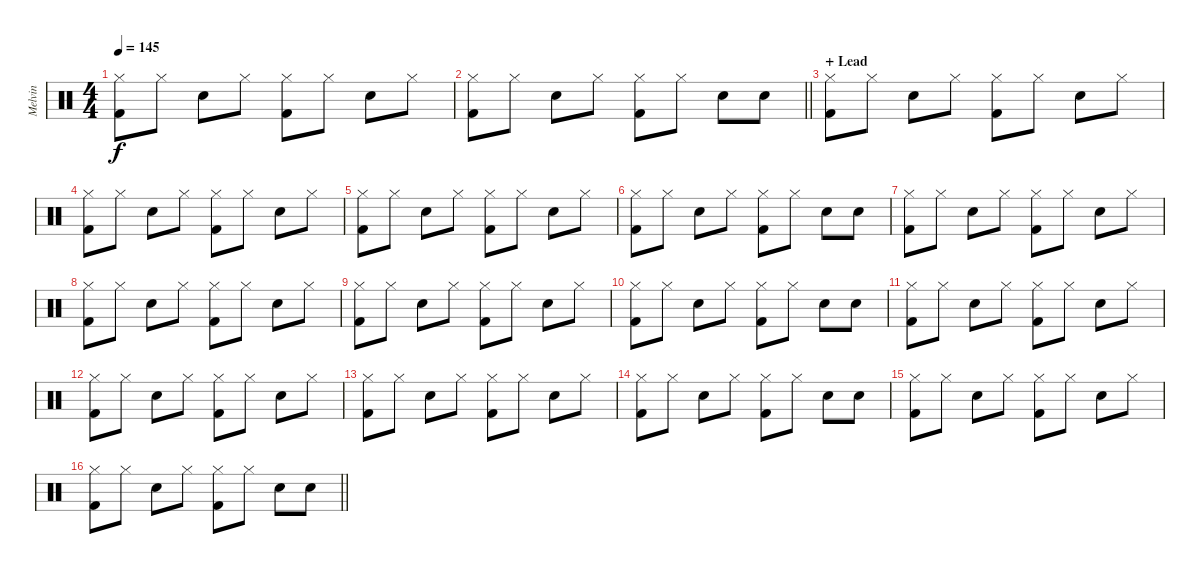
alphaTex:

\track ("Melvin" "Melvin") {instrument percussion}
\staff {score}
\articulation defaults
\ts (4 4)
\tempo 145
\clef neutral
\ks c
("Hi-Hat (closed)" "Kick (hit) 2").8{dy f} "Hi-Hat (closed)".8 "Snare (hit) 2".8 "Hi-Hat (closed)".8 ("Hi-Hat (closed)" "Kick (hit) 2").8 "Hi-Hat (closed)".8 "Snare (hit) 2".8 "Hi-Hat (closed)".8 |
\barLineRight lightlight
("Hi-Hat (closed)" "Kick (hit) 2").8 "Hi-Hat (closed)".8 "Snare (hit) 2".8 "Hi-Hat (closed)".8 ("Hi-Hat (closed)" "Kick (hit) 2").8 "Hi-Hat (closed)".8 "Snare (hit) 2".8 "Snare (hit) 2".8 |
\section ("" "+ Lead")
("Hi-Hat (closed)" "Kick (hit) 2").8 "Hi-Hat (closed)".8 "Snare (hit) 2".8 "Hi-Hat (closed)".8 ("Hi-Hat (closed)" "Kick (hit) 2").8 "Hi-Hat (closed)".8 "Snare (hit) 2".8 "Hi-Hat (closed)".8 |
("Hi-Hat (closed)" "Kick (hit) 2").8 "Hi-Hat (closed)".8 "Snare (hit) 2".8 "Hi-Hat (closed)".8 ("Hi-Hat (closed)" "Kick (hit) 2").8 "Hi-Hat (closed)".8 "Snare (hit) 2".8 "Hi-Hat (closed)".8 |
("Hi-Hat (closed)" "Kick (hit) 2").8 "Hi-Hat (closed)".8 "Snare (hit) 2".8 "Hi-Hat (closed)".8 ("Hi-Hat (closed)" "Kick (hit) 2").8 "Hi-Hat (closed)".8 "Snare (hit) 2".8 "Hi-Hat (closed)".8 |
("Hi-Hat (closed)" "Kick (hit) 2").8 "Hi-Hat (closed)".8 "Snare (hit) 2".8 "Hi-Hat (closed)".8 ("Hi-Hat (closed)" "Kick (hit) 2").8 "Hi-Hat (closed)".8 "Snare (hit) 2".8 "Snare (hit) 2".8 |
("Hi-Hat (closed)" "Kick (hit) 2").8 "Hi-Hat (closed)".8 "Snare (hit) 2".8 "Hi-Hat (closed)".8 ("Hi-Hat (closed)" "Kick (hit) 2").8 "Hi-Hat (closed)".8 "Snare (hit) 2".8 "Hi-Hat (closed)".8 |
("Hi-Hat (closed)" "Kick (hit) 2").8 "Hi-Hat (closed)".8 "Snare (hit) 2".8 "Hi-Hat (closed)".8 ("Hi-Hat (closed)" "Kick (hit) 2").8 "Hi-Hat (closed)".8 "Snare (hit) 2".8 "Hi-Hat (closed)".8 |
("Hi-Hat (closed)" "Kick (hit) 2").8 "Hi-Hat (closed)".8 "Snare (hit) 2".8 "Hi-Hat (closed)".8 ("Hi-Hat (closed)" "Kick (hit) 2").8 "Hi-Hat (closed)".8 "Snare (hit) 2".8 "Hi-Hat (closed)".8 |
("Hi-Hat (closed)" "Kick (hit) 2").8 "Hi-Hat (closed)".8 "Snare (hit) 2".8 "Hi-Hat (closed)".8 ("Hi-Hat (closed)" "Kick (hit) 2").8 "Hi-Hat (closed)".8 "Snare (hit) 2".8 "Snare (hit) 2".8 |
("Hi-Hat (closed)" "Kick (hit) 2").8 "Hi-Hat (closed)".8 "Snare (hit) 2".8 "Hi-Hat (closed)".8 ("Hi-Hat (closed)" "Kick (hit) 2").8 "Hi-Hat (closed)".8 "Snare (hit) 2".8 "Hi-Hat (closed)".8 |
("Hi-Hat (closed)" "Kick (hit) 2").8 "Hi-Hat (closed)".8 "Snare (hit) 2".8 "Hi-Hat (closed)".8 ("Hi-Hat (closed)" "Kick (hit) 2").8 "Hi-Hat (closed)".8 "Snare (hit) 2".8 "Hi-Hat (closed)".8 |
("Hi-Hat (closed)" "Kick (hit) 2").8 "Hi-Hat (closed)".8 "Snare (hit) 2".8 "Hi-Hat (closed)".8 ("Hi-Hat (closed)" "Kick (hit) 2").8 "Hi-Hat (closed)".8 "Snare (hit) 2".8 "Hi-Hat (closed)".8 |
("Hi-Hat (closed)" "Kick (hit) 2").8 "Hi-Hat (closed)".8 "Snare (hit) 2".8 "Hi-Hat (closed)".8 ("Hi-Hat (closed)" "Kick (hit) 2").8 "Hi-Hat (closed)".8 "Snare (hit) 2".8 "Snare (hit) 2".8 |
("Hi-Hat (closed)" "Kick (hit) 2").8 "Hi-Hat (closed)".8 "Snare (hit) 2".8 "Hi-Hat (closed)".8 ("Hi-Hat (closed)" "Kick (hit) 2").8 "Hi-Hat (closed)".8 "Snare (hit) 2".8 "Hi-Hat (closed)".8 |
\barLineRight lightlight
("Hi-Hat (closed)" "Kick (hit) 2").8 "Hi-Hat (closed)".8 "Snare (hit) 2".8 "Hi-Hat (closed)".8 ("Hi-Hat (closed)" "Kick (hit) 2").8 "Hi-Hat (closed)".8 "Snare (hit) 2".8 "Snare (hit) 2".8
